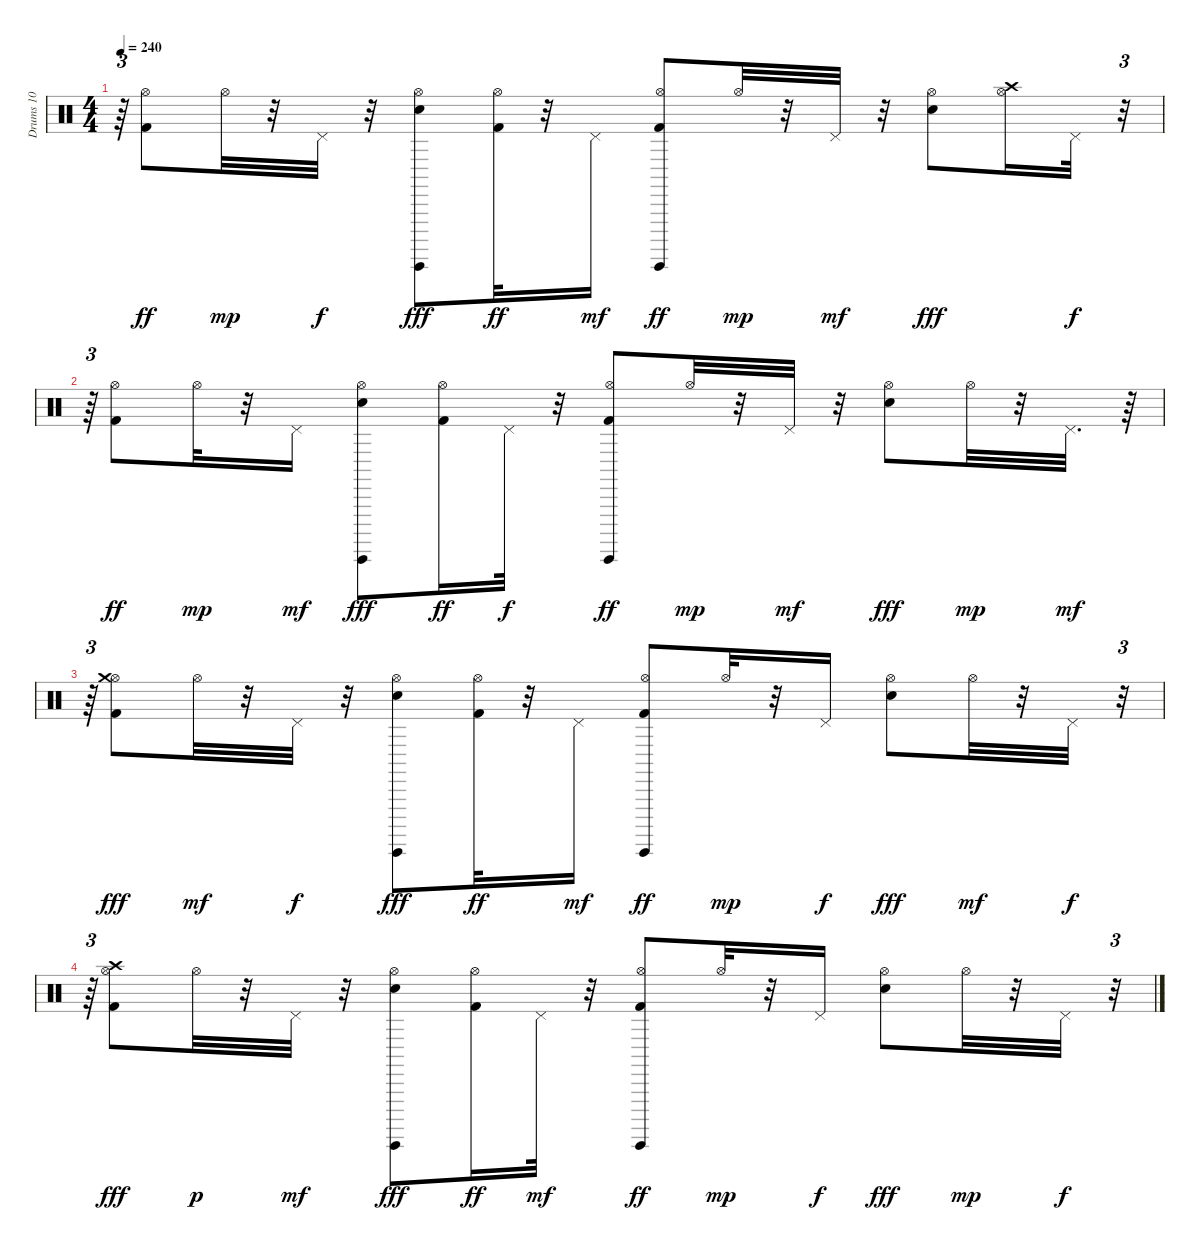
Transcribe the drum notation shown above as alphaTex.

\track ("Drums 10" "Drums 10") {instrument percussion}
\staff {score}
\articulation defaults
\ts (4 4)
\tempo 240
\clef neutral
\ks c
r.64{tu (3 2) dy f} ("Hi-Hat (open)" "Kick (hit) 2").8{dy ff} "Hi-Hat (open)".32{dy mp} r.32 "Pedal Hi-Hat (hit)".32{dy f} r.32 ("Hi-Hat (open)" "Guiro (hit)" "Snare (hit) 2").8{dy fff} ("Hi-Hat (open)" "Kick (hit) 2").32{dy ff} r.32 "Pedal Hi-Hat (hit)".16{dy mf} ("Hi-Hat (open)" "Guiro (hit)" "Kick (hit) 2").8{dy ff} "Hi-Hat (open)".32{dy mp} r.32 "Pedal Hi-Hat (hit)".32{dy mf} r.32 ("Hi-Hat (open)" "Snare (hit) 2").8{dy fff} ("Hi-Hat (open)" "Crash high (hit)").16 "Pedal Hi-Hat (hit)".32{dy f} r.32{tu (3 2)} |
r.64{tu (3 2)} ("Hi-Hat (open)" "Kick (hit) 2").8{dy ff} "Hi-Hat (open)".32{dy mp} r.32 "Pedal Hi-Hat (hit)".16{dy mf} ("Hi-Hat (open)" "Guiro (hit)" "Snare (hit) 2").8{dy fff} ("Hi-Hat (open)" "Kick (hit) 2").16{dy ff} "Pedal Hi-Hat (hit)".32{dy f} r.32 ("Hi-Hat (open)" "Guiro (hit)" "Kick (hit) 2").8{dy ff} "Hi-Hat (open)".32{dy mp} r.32 "Pedal Hi-Hat (hit)".32{dy mf} r.32 ("Hi-Hat (open)" "Snare (hit) 2").8{dy fff} "Hi-Hat (open)".32{dy mp} r.32 "Pedal Hi-Hat (hit)".32{d dy mf} r.64 |
r.64{tu (3 2)} ("Hi-Hat (open)" "Kick (hit) 2" "Crash medium (hit)").8{dy fff} "Hi-Hat (open)".32{dy mf} r.32 "Pedal Hi-Hat (hit)".32{dy f} r.32 ("Hi-Hat (open)" "Guiro (hit)" "Snare (hit) 2").8{dy fff} ("Hi-Hat (open)" "Kick (hit) 2").32{dy ff} r.32 "Pedal Hi-Hat (hit)".16{dy mf} ("Hi-Hat (open)" "Guiro (hit)" "Kick (hit) 2").8{dy ff} "Hi-Hat (open)".32{dy mp} r.32 "Pedal Hi-Hat (hit)".16{dy f} ("Hi-Hat (open)" "Snare (hit) 2").8{dy fff} "Hi-Hat (open)".32{dy mf} r.32 "Pedal Hi-Hat (hit)".32{dy f} r.32{tu (3 2)} |
r.64{tu (3 2)} ("Hi-Hat (open)" "Kick (hit) 2" "Crash high (hit)").8{dy fff} "Hi-Hat (open)".32{dy p} r.32 "Pedal Hi-Hat (hit)".32{dy mf} r.32 ("Hi-Hat (open)" "Guiro (hit)" "Snare (hit) 2").8{dy fff} ("Hi-Hat (open)" "Kick (hit) 2").16{dy ff} "Pedal Hi-Hat (hit)".32{dy mf} r.32 ("Hi-Hat (open)" "Guiro (hit)" "Kick (hit) 2").8{dy ff} "Hi-Hat (open)".32{dy mp} r.32 "Pedal Hi-Hat (hit)".16{dy f} ("Hi-Hat (open)" "Snare (hit) 2").8{dy fff} "Hi-Hat (open)".32{dy mp} r.32 "Pedal Hi-Hat (hit)".32{dy f} r.32{tu (3 2)}
